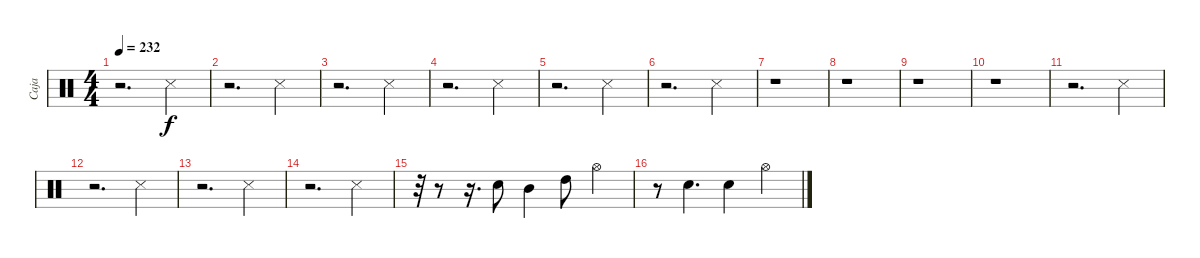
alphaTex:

\track ("Caja" "Caja") {instrument percussion}
\staff {score}
\articulation defaults
\ts (4 4)
\tempo 232
\clef neutral
\ks c
r.2{d dy f} "Snare (side stick) 3".4 |
r.2{d} "Snare (side stick) 3".4 |
r.2{d} "Snare (side stick) 3".4 |
r.2{d} "Snare (side stick) 3".4 |
r.2{d} "Snare (side stick) 3".4 |
r.2{d} "Snare (side stick) 3".4 |
r.1 |
r.1 |
r.1 |
r.1 |
r.2{d} "Snare (side stick) 3".4 |
r.2{d} "Snare (side stick) 3".4 |
r.2{d} "Snare (side stick) 3".4 |
r.2{d} "Snare (side stick) 3".4 |
r.32 r.8 r.16{d} "Snare (hit) 2".8 "Mid Tom (hit)".4 "High Tom (hit)".8 "Hi-Hat (open)".4 |
r.8 "Snare (hit) 2".4{d} "Snare (hit) 2".4 "Hi-Hat (open)".4
